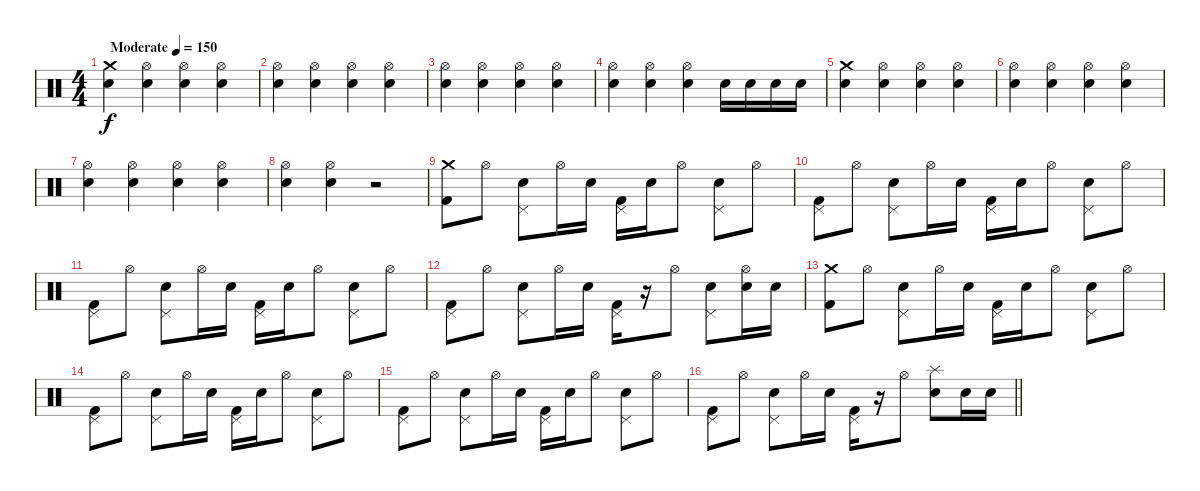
\track "" {instrument percussion}
\staff {score}
\articulation defaults
\ts (4 4)
\tempo (150 "Moderate")
\clef neutral
\ks c
("Crash medium (hit)" "Electric Snare (hit)").4{dy f} ("Hi-Hat (open)" "Electric Snare (hit)").4 ("Hi-Hat (open)" "Electric Snare (hit)").4 ("Hi-Hat (open)" "Electric Snare (hit)").4 |
("Hi-Hat (open)" "Electric Snare (hit)").4 ("Hi-Hat (open)" "Electric Snare (hit)").4 ("Hi-Hat (open)" "Electric Snare (hit)").4 ("Hi-Hat (open)" "Electric Snare (hit)").4 |
("Hi-Hat (open)" "Electric Snare (hit)").4 ("Hi-Hat (open)" "Electric Snare (hit)").4 ("Hi-Hat (open)" "Electric Snare (hit)").4 ("Hi-Hat (open)" "Electric Snare (hit)").4 |
("Hi-Hat (open)" "Electric Snare (hit)").4 ("Hi-Hat (open)" "Electric Snare (hit)").4 ("Hi-Hat (open)" "Electric Snare (hit)").4 "Electric Snare (hit)".16 "Electric Snare (hit)".16 "Electric Snare (hit)".16 "Electric Snare (hit)".16 |
("Crash medium (hit)" "Electric Snare (hit)").4 ("Hi-Hat (open)" "Electric Snare (hit)").4 ("Hi-Hat (open)" "Electric Snare (hit)").4 ("Hi-Hat (open)" "Electric Snare (hit)").4 |
("Hi-Hat (open)" "Electric Snare (hit)").4 ("Hi-Hat (open)" "Electric Snare (hit)").4 ("Hi-Hat (open)" "Electric Snare (hit)").4 ("Hi-Hat (open)" "Electric Snare (hit)").4 |
("Hi-Hat (open)" "Electric Snare (hit)").4 ("Hi-Hat (open)" "Electric Snare (hit)").4 ("Hi-Hat (open)" "Electric Snare (hit)").4 ("Hi-Hat (open)" "Electric Snare (hit)").4 |
("Hi-Hat (open)" "Electric Snare (hit)").4 ("Hi-Hat (open)" "Electric Snare (hit)").4 r.2 |
("Crash medium (hit)" "Kick (hit) 2").8 "Hi-Hat (open)".8 ("Pedal Hi-Hat (hit)" "Snare (hit) 2").8 "Hi-Hat (open)".16 "Snare (hit) 2".16 ("Pedal Hi-Hat (hit)" "Kick (hit) 2").16 "Snare (hit) 2".16 "Hi-Hat (open)".8 ("Pedal Hi-Hat (hit)" "Snare (hit) 2").8 "Hi-Hat (open)".8 |
("Pedal Hi-Hat (hit)" "Kick (hit) 2").8 "Hi-Hat (open)".8 ("Pedal Hi-Hat (hit)" "Snare (hit) 2").8 "Hi-Hat (open)".16 "Snare (hit) 2".16 ("Pedal Hi-Hat (hit)" "Kick (hit) 2").16 "Snare (hit) 2".16 "Hi-Hat (open)".8 ("Pedal Hi-Hat (hit)" "Snare (hit) 2").8 "Hi-Hat (open)".8 |
("Pedal Hi-Hat (hit)" "Kick (hit) 2").8 "Hi-Hat (open)".8 ("Pedal Hi-Hat (hit)" "Snare (hit) 2").8 "Hi-Hat (open)".16 "Snare (hit) 2".16 ("Pedal Hi-Hat (hit)" "Kick (hit) 2").16 "Snare (hit) 2".16 "Hi-Hat (open)".8 ("Pedal Hi-Hat (hit)" "Snare (hit) 2").8 "Hi-Hat (open)".8 |
("Pedal Hi-Hat (hit)" "Kick (hit) 2").8 "Hi-Hat (open)".8 ("Pedal Hi-Hat (hit)" "Snare (hit) 2").8 "Hi-Hat (open)".16 "Snare (hit) 2".16 ("Pedal Hi-Hat (hit)" "Kick (hit) 2").16 r.16 "Hi-Hat (open)".8 ("Pedal Hi-Hat (hit)" "Snare (hit) 2").8 ("Hi-Hat (open)" "Snare (hit) 2").16 "Snare (hit) 2".16 |
("Crash medium (hit)" "Kick (hit) 2").8 "Hi-Hat (open)".8 ("Pedal Hi-Hat (hit)" "Snare (hit) 2").8 "Hi-Hat (open)".16 "Snare (hit) 2".16 ("Pedal Hi-Hat (hit)" "Kick (hit) 2").16 "Snare (hit) 2".16 "Hi-Hat (open)".8 ("Pedal Hi-Hat (hit)" "Snare (hit) 2").8 "Hi-Hat (open)".8 |
("Pedal Hi-Hat (hit)" "Kick (hit) 2").8 "Hi-Hat (open)".8 ("Pedal Hi-Hat (hit)" "Snare (hit) 2").8 "Hi-Hat (open)".16 "Snare (hit) 2".16 ("Pedal Hi-Hat (hit)" "Kick (hit) 2").16 "Snare (hit) 2".16 "Hi-Hat (open)".8 ("Pedal Hi-Hat (hit)" "Snare (hit) 2").8 "Hi-Hat (open)".8 |
("Pedal Hi-Hat (hit)" "Kick (hit) 2").8 "Hi-Hat (open)".8 ("Pedal Hi-Hat (hit)" "Snare (hit) 2").8 "Hi-Hat (open)".16 "Snare (hit) 2".16 ("Pedal Hi-Hat (hit)" "Kick (hit) 2").16 "Snare (hit) 2".16 "Hi-Hat (open)".8 ("Pedal Hi-Hat (hit)" "Snare (hit) 2").8 "Hi-Hat (open)".8 |
\barLineRight lightlight
("Pedal Hi-Hat (hit)" "Kick (hit) 2").8 "Hi-Hat (open)".8 ("Pedal Hi-Hat (hit)" "Snare (hit) 2").8 "Hi-Hat (open)".16 "Snare (hit) 2".16 ("Pedal Hi-Hat (hit)" "Kick (hit) 2").16 r.16 "Hi-Hat (open)".8 ("Splash (hit)" "Snare (hit) 2").8 "Snare (hit) 2".16 "Snare (hit) 2".16
